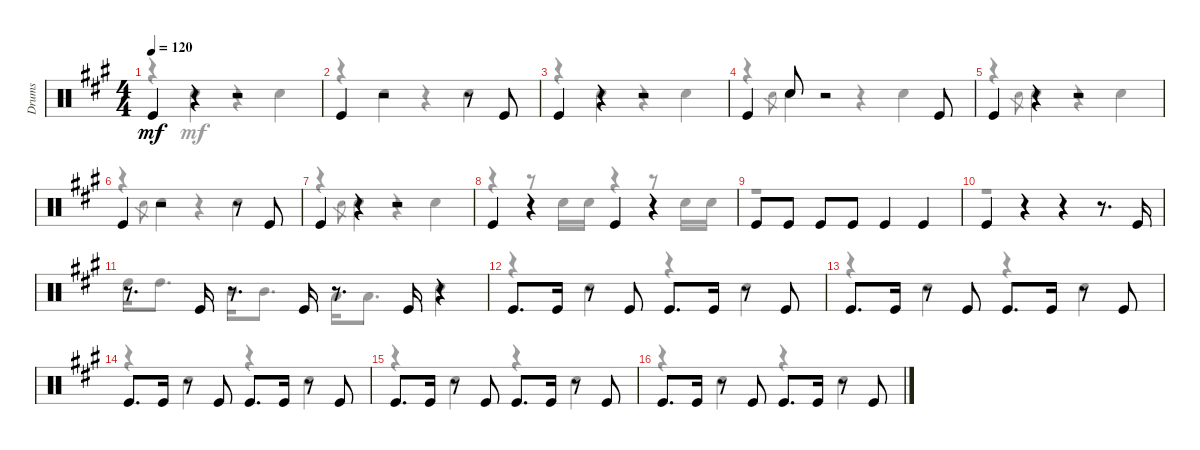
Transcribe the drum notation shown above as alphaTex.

\track ("Drums" "Drums") {instrument percussion}
\staff {score}
\articulation defaults
\voice
\ts (4 4)
\tempo 120
\clef neutral
\ks f#minor "Kick (hit)".4{dy mf}
r.4 r.2 |
"Kick (hit)".4 r.2 r.8 "Kick (hit)".8 |
"Kick (hit)".4 r.4 r.2 |
"Kick (hit)".4 "Snare (hit) 2".8 r.2 "Kick (hit)".8 |
"Kick (hit)".4 r.4 r.2 |
"Kick (hit)".4 r.2 r.8 "Kick (hit)".8 |
"Kick (hit)".4 r.4 r.2 |
"Kick (hit)".4 r.4 "Kick (hit)".4 r.4 |
"Kick (hit)".8 "Kick (hit)".8 "Kick (hit)".8 "Kick (hit)".8 "Kick (hit)".4 "Kick (hit)".4 |
"Kick (hit)".4 r.4 r.4 r.8{d} "Kick (hit)".16 |
r.8{d} "Kick (hit)".16 r.8{d} "Kick (hit)".16 r.8{d} "Kick (hit)".16 r.4 |
"Kick (hit)".8{d} "Kick (hit)".16 r.8 "Kick (hit)".8 "Kick (hit)".8{d} "Kick (hit)".16 r.8 "Kick (hit)".8 |
"Kick (hit)".8{d} "Kick (hit)".16 r.8 "Kick (hit)".8 "Kick (hit)".8{d} "Kick (hit)".16 r.8 "Kick (hit)".8 |
"Kick (hit)".8{d} "Kick (hit)".16 r.8 "Kick (hit)".8 "Kick (hit)".8{d} "Kick (hit)".16 r.8 "Kick (hit)".8 |
"Kick (hit)".8{d} "Kick (hit)".16 r.8 "Kick (hit)".8 "Kick (hit)".8{d} "Kick (hit)".16 r.8 "Kick (hit)".8 |
"Kick (hit)".8{d} "Kick (hit)".16 r.8 "Kick (hit)".8 "Kick (hit)".8{d} "Kick (hit)".16 r.8 "Kick (hit)".8
\voice
\clef neutral
\ottava regular
\simile none
\ks f#minor
r.4{dy mf} "Snare (hit) 2".4 r.4 "Snare (hit) 2".4 |
r.4 "Snare (hit) 2".4 r.4 "Snare (hit) 2".4 |
r.4 "Snare (hit) 2".4 r.4 "Snare (hit) 2".4 |
r.4 "Snare (hit)".8{gr} "Snare (hit) 2".4 r.4 "Snare (hit) 2".4 |
r.4 "Snare (hit)".8{gr} "Snare (hit) 2".4 r.4 "Snare (hit) 2".4 |
r.4 "Snare (hit)".8{gr} "Snare (hit) 2".4 r.4 "Snare (hit) 2".4 |
r.4 "Snare (hit)".8{gr} "Snare (hit) 2".4 r.4 "Snare (hit) 2".4 |
r.4 r.8 "Snare (hit) 2".16 "Snare (hit) 2".16 r.4 r.8 "Snare (hit) 2".16 "Snare (hit) 2".16 |
r.1 |
r.1 |
"High Tom (hit)".16 "High Tom (hit)".8{d} "Mid Tom (hit)".16 "Mid Tom (hit)".8{d} "Low Tom (hit)".16 "Low Tom (hit)".8{d} "Snare (hit) 2".4 |
r.4 "Snare (hit) 2".4 r.4 "Snare (hit) 2".4 |
r.4 "Snare (hit) 2".4 r.4 "Snare (hit) 2".4 |
r.4 "Snare (hit) 2".4 r.4 "Snare (hit) 2".4 |
r.4 "Snare (hit) 2".4 r.4 "Snare (hit) 2".4 |
r.4 "Snare (hit) 2".4 r.4 "Snare (hit) 2".4
